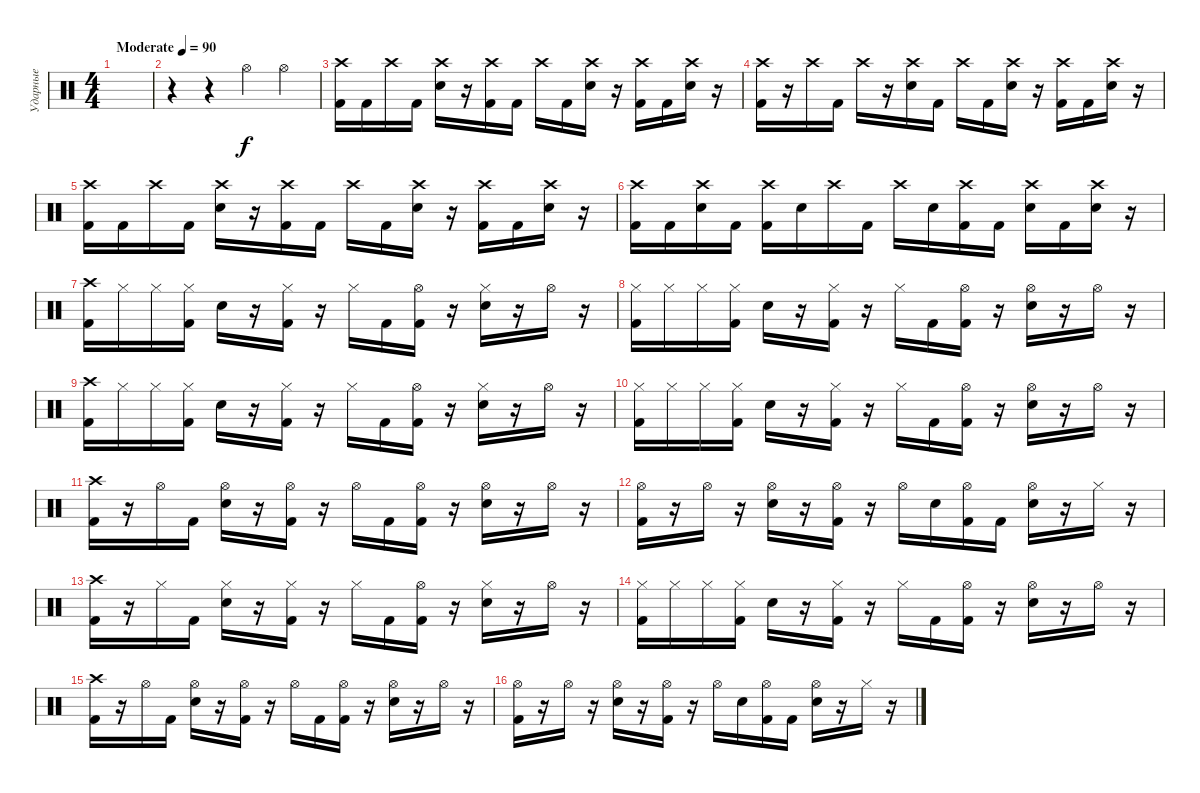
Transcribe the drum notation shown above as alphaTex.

\track ("Ударные" "Ударные") {instrument percussion}
\staff {score}
\articulation defaults
\ts (4 4)
\tempo (90 "Moderate")
\clef neutral
\ks c
|
r.4 r.4 "Hi-Hat (open)".4 "Hi-Hat (open)".4 |
("Crash high (hit)" "Kick (hit) 2").16 "Kick (hit) 2".16 "Crash high (hit)".16 "Kick (hit) 2".16 ("Crash high (hit)" "Electric Snare (hit)").16 r.16 ("Crash high (hit)" "Kick (hit) 2").16 "Kick (hit) 2".16 "Crash high (hit)".16 "Kick (hit) 2".16 ("Crash high (hit)" "Electric Snare (hit)").16 r.16 ("Crash high (hit)" "Kick (hit) 2").16 "Kick (hit) 2".16 ("Crash high (hit)" "Electric Snare (hit)").16 r.16 |
("Crash high (hit)" "Kick (hit) 2").16 r.16 "Crash high (hit)".16 "Kick (hit) 2".16 "Crash high (hit)".16 r.16 ("Crash high (hit)" "Electric Snare (hit)").16 "Kick (hit) 2".16 "Crash high (hit)".16 "Kick (hit) 2".16 ("Crash high (hit)" "Electric Snare (hit)").16 r.16 ("Crash high (hit)" "Kick (hit) 2").16 "Kick (hit) 2".16 ("Crash high (hit)" "Electric Snare (hit)").16 r.16 |
("Crash high (hit)" "Kick (hit) 2").16 "Kick (hit) 2".16 "Crash high (hit)".16 "Kick (hit) 2".16 ("Crash high (hit)" "Electric Snare (hit)").16 r.16 ("Crash high (hit)" "Kick (hit) 2").16 "Kick (hit) 2".16 "Crash high (hit)".16 "Kick (hit) 2".16 ("Crash high (hit)" "Electric Snare (hit)").16 r.16 ("Crash high (hit)" "Kick (hit) 2").16 "Kick (hit) 2".16 ("Crash high (hit)" "Electric Snare (hit)").16 r.16 |
("Crash high (hit)" "Kick (hit) 2").16 "Kick (hit) 2".16 ("Crash high (hit)" "Electric Snare (hit)").16 "Kick (hit) 2".16 ("Crash high (hit)" "Kick (hit) 2").16 "Electric Snare (hit)".16 "Crash high (hit)".16 "Kick (hit) 2".16 "Crash high (hit)".16 "Electric Snare (hit)".16 ("Crash high (hit)" "Kick (hit) 2").16 "Kick (hit) 2".16 ("Crash high (hit)" "Electric Snare (hit)").16 "Kick (hit) 2".16 ("Crash high (hit)" "Electric Snare (hit)").16 r.16 |
("Crash high (hit)" "Kick (hit) 2").16 "Hi-Hat (closed)".16 "Hi-Hat (closed)".16 ("Hi-Hat (closed)" "Kick (hit) 2").16 "Electric Snare (hit)".16 r.16 ("Hi-Hat (closed)" "Kick (hit) 2").16 r.16 "Hi-Hat (closed)".16 "Kick (hit) 2".16 ("Hi-Hat (open)" "Kick (hit) 2").16 r.16 ("Hi-Hat (closed)" "Electric Snare (hit)").16 r.16 "Hi-Hat (open)".16 r.16 |
("Hi-Hat (closed)" "Kick (hit) 2").16 "Hi-Hat (closed)".16 "Hi-Hat (closed)".16 ("Hi-Hat (closed)" "Kick (hit) 2").16 "Electric Snare (hit)".16 r.16 ("Hi-Hat (closed)" "Kick (hit) 2").16 r.16 "Hi-Hat (closed)".16 "Kick (hit) 2".16 ("Hi-Hat (open)" "Kick (hit) 2").16 r.16 ("Hi-Hat (open)" "Electric Snare (hit)").16 r.16 "Hi-Hat (open)".16 r.16 |
("Crash high (hit)" "Kick (hit) 2").16 "Hi-Hat (closed)".16 "Hi-Hat (closed)".16 ("Hi-Hat (closed)" "Kick (hit) 2").16 "Electric Snare (hit)".16 r.16 ("Hi-Hat (closed)" "Kick (hit) 2").16 r.16 "Hi-Hat (closed)".16 "Kick (hit) 2".16 ("Hi-Hat (open)" "Kick (hit) 2").16 r.16 ("Hi-Hat (closed)" "Electric Snare (hit)").16 r.16 "Hi-Hat (open)".16 r.16 |
("Hi-Hat (closed)" "Kick (hit) 2").16 "Hi-Hat (closed)".16 "Hi-Hat (closed)".16 ("Hi-Hat (closed)" "Kick (hit) 2").16 "Electric Snare (hit)".16 r.16 ("Hi-Hat (closed)" "Kick (hit) 2").16 r.16 "Hi-Hat (closed)".16 "Kick (hit) 2".16 ("Hi-Hat (open)" "Kick (hit) 2").16 r.16 ("Hi-Hat (open)" "Electric Snare (hit)").16 r.16 "Hi-Hat (open)".16 r.16 |
("Crash high (hit)" "Kick (hit) 2").16 r.16 "Hi-Hat (open)".16 "Kick (hit) 2".16 ("Hi-Hat (open)" "Electric Snare (hit)").16 r.16 ("Hi-Hat (open)" "Kick (hit) 2").16 r.16 "Hi-Hat (open)".16 "Kick (hit) 2".16 ("Hi-Hat (open)" "Kick (hit) 2").16 r.16 ("Hi-Hat (open)" "Electric Snare (hit)").16 r.16 "Hi-Hat (open)".16 r.16 |
("Hi-Hat (open)" "Kick (hit) 2").16 r.16 "Hi-Hat (open)".16 r.16 ("Hi-Hat (open)" "Electric Snare (hit)").16 r.16 ("Hi-Hat (open)" "Kick (hit) 2").16 r.16 "Hi-Hat (open)".16 "Electric Snare (hit)".16 ("Hi-Hat (open)" "Kick (hit) 2").16 "Kick (hit) 2".16 ("Hi-Hat (open)" "Electric Snare (hit)").16 r.16 "Hi-Hat (closed)".16 r.16 |
("Crash high (hit)" "Kick (hit) 2").16 r.16 "Hi-Hat (closed)".16 "Kick (hit) 2".16 ("Hi-Hat (closed)" "Electric Snare (hit)").16 r.16 ("Hi-Hat (closed)" "Kick (hit) 2").16 r.16 "Hi-Hat (closed)".16 "Kick (hit) 2".16 ("Hi-Hat (open)" "Kick (hit) 2").16 r.16 ("Hi-Hat (closed)" "Electric Snare (hit)").16 r.16 "Hi-Hat (open)".16 r.16 |
("Hi-Hat (closed)" "Kick (hit) 2").16 "Hi-Hat (closed)".16 "Hi-Hat (closed)".16 ("Hi-Hat (closed)" "Kick (hit) 2").16 "Electric Snare (hit)".16 r.16 ("Hi-Hat (closed)" "Kick (hit) 2").16 r.16 "Hi-Hat (closed)".16 "Kick (hit) 2".16 ("Hi-Hat (open)" "Kick (hit) 2").16 r.16 ("Hi-Hat (open)" "Electric Snare (hit)").16 r.16 "Hi-Hat (open)".16 r.16 |
("Crash high (hit)" "Kick (hit) 2").16 r.16 "Hi-Hat (open)".16 "Kick (hit) 2".16 ("Hi-Hat (open)" "Electric Snare (hit)").16 r.16 ("Hi-Hat (open)" "Kick (hit) 2").16 r.16 "Hi-Hat (open)".16 "Kick (hit) 2".16 ("Hi-Hat (open)" "Kick (hit) 2").16 r.16 ("Hi-Hat (open)" "Electric Snare (hit)").16 r.16 "Hi-Hat (open)".16 r.16 |
("Hi-Hat (open)" "Kick (hit) 2").16 r.16 "Hi-Hat (open)".16 r.16 ("Hi-Hat (open)" "Electric Snare (hit)").16 r.16 ("Hi-Hat (open)" "Kick (hit) 2").16 r.16 "Hi-Hat (open)".16 "Electric Snare (hit)".16 ("Hi-Hat (open)" "Kick (hit) 2").16 "Kick (hit) 2".16 ("Hi-Hat (open)" "Electric Snare (hit)").16 r.16 "Hi-Hat (closed)".16 r.16
